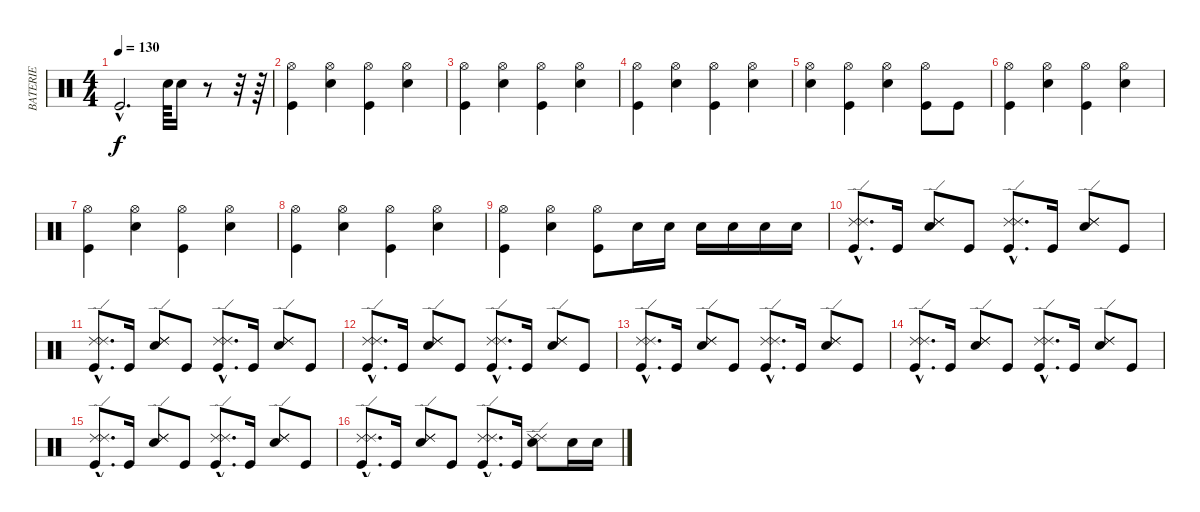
\track ("BATERIE" "BATERIE") {instrument percussion}
\staff {score}
\articulation defaults
\ts (4 4)
\tempo 130
\clef neutral
\ks c "Kick (hit)"{hac}.2{d dy f} "Snare (hit) 2".64 "Snare (hit) 2".16
r.8 r.32 r.64 |
("Hi-Hat (open)" "Kick (hit)").4 ("Hi-Hat (open)" "Snare (hit) 2").4 ("Hi-Hat (open)" "Kick (hit)").4 ("Hi-Hat (open)" "Snare (hit) 2").4 |
("Hi-Hat (open)" "Kick (hit)").4 ("Hi-Hat (open)" "Snare (hit) 2").4 ("Hi-Hat (open)" "Kick (hit)").4 ("Hi-Hat (open)" "Snare (hit) 2").4 |
("Hi-Hat (open)" "Kick (hit)").4 ("Hi-Hat (open)" "Snare (hit) 2").4 ("Hi-Hat (open)" "Kick (hit)").4 ("Hi-Hat (open)" "Snare (hit) 2").4 |
("Hi-Hat (open)" "Snare (hit) 2").4 ("Hi-Hat (open)" "Kick (hit)").4 ("Hi-Hat (open)" "Snare (hit) 2").4 ("Hi-Hat (open)" "Kick (hit)").8 "Kick (hit)".8 |
("Hi-Hat (open)" "Kick (hit)").4 ("Hi-Hat (open)" "Snare (hit) 2").4 ("Hi-Hat (open)" "Kick (hit)").4 ("Hi-Hat (open)" "Snare (hit) 2").4 |
("Hi-Hat (open)" "Kick (hit)").4 ("Hi-Hat (open)" "Snare (hit) 2").4 ("Hi-Hat (open)" "Kick (hit)").4 ("Hi-Hat (open)" "Snare (hit) 2").4 |
("Hi-Hat (open)" "Kick (hit)").4 ("Hi-Hat (open)" "Snare (hit) 2").4 ("Hi-Hat (open)" "Kick (hit)").4 ("Hi-Hat (open)" "Snare (hit) 2").4 |
("Hi-Hat (open)" "Kick (hit)").4 ("Hi-Hat (open)" "Snare (hit) 2").4 ("Hi-Hat (open)" "Kick (hit)").8 "Snare (hit) 2".16 "Snare (hit) 2".16 "Snare (hit) 2".16 "Snare (hit) 2".16 "Snare (hit) 2".16 "Snare (hit) 2".16 |
("Ride (edge) 2"{hac} "Ride (edge) 2"{hac} "Kick (hit)"{hac}).8{d} "Kick (hit)".16 ("Ride (edge) 2" "Ride (edge) 2" "Snare (hit) 2").8 "Kick (hit)".8 ("Ride (edge) 2"{hac} "Ride (edge) 2"{hac} "Kick (hit)"{hac}).8{d} "Kick (hit)".16 ("Ride (edge) 2" "Ride (edge) 2" "Snare (hit) 2").8 "Kick (hit)".8 |
("Ride (edge) 2"{hac} "Ride (edge) 2"{hac} "Kick (hit)"{hac}).8{d} "Kick (hit)".16 ("Ride (edge) 2" "Ride (edge) 2" "Snare (hit) 2").8 "Kick (hit)".8 ("Ride (edge) 2"{hac} "Ride (edge) 2"{hac} "Kick (hit)"{hac}).8{d} "Kick (hit)".16 ("Ride (edge) 2" "Ride (edge) 2" "Snare (hit) 2").8 "Kick (hit)".8 |
("Ride (edge) 2"{hac} "Ride (edge) 2"{hac} "Kick (hit)"{hac}).8{d} "Kick (hit)".16 ("Ride (edge) 2" "Ride (edge) 2" "Snare (hit) 2").8 "Kick (hit)".8 ("Ride (edge) 2"{hac} "Ride (edge) 2"{hac} "Kick (hit)"{hac}).8{d} "Kick (hit)".16 ("Ride (edge) 2" "Ride (edge) 2" "Snare (hit) 2").8 "Kick (hit)".8 |
("Ride (edge) 2"{hac} "Ride (edge) 2"{hac} "Kick (hit)"{hac}).8{d} "Kick (hit)".16 ("Ride (edge) 2" "Ride (edge) 2" "Snare (hit) 2").8 "Kick (hit)".8 ("Ride (edge) 2"{hac} "Ride (edge) 2"{hac} "Kick (hit)"{hac}).8{d} "Kick (hit)".16 ("Ride (edge) 2" "Ride (edge) 2" "Snare (hit) 2").8 "Kick (hit)".8 |
("Ride (edge) 2"{hac} "Ride (edge) 2"{hac} "Kick (hit)"{hac}).8{d} "Kick (hit)".16 ("Ride (edge) 2" "Ride (edge) 2" "Snare (hit) 2").8 "Kick (hit)".8 ("Ride (edge) 2"{hac} "Ride (edge) 2"{hac} "Kick (hit)"{hac}).8{d} "Kick (hit)".16 ("Ride (edge) 2" "Ride (edge) 2" "Snare (hit) 2").8 "Kick (hit)".8 |
("Ride (edge) 2"{hac} "Ride (edge) 2"{hac} "Kick (hit)"{hac}).8{d} "Kick (hit)".16 ("Ride (edge) 2" "Ride (edge) 2" "Snare (hit) 2").8 "Kick (hit)".8 ("Ride (edge) 2"{hac} "Ride (edge) 2"{hac} "Kick (hit)"{hac}).8{d} "Kick (hit)".16 ("Ride (edge) 2" "Ride (edge) 2" "Snare (hit) 2").8 "Kick (hit)".8 |
("Ride (edge) 2"{hac} "Ride (edge) 2"{hac} "Kick (hit)"{hac}).8{d} "Kick (hit)".16 ("Ride (edge) 2" "Ride (edge) 2" "Snare (hit) 2").8 "Kick (hit)".8 ("Ride (edge) 2"{hac} "Ride (edge) 2"{hac} "Kick (hit)"{hac}).8{d} "Kick (hit)".16 ("Ride (edge) 2" "Ride (edge) 2" "Snare (hit) 2").8 "Snare (hit) 2".16 "Snare (hit) 2".16
